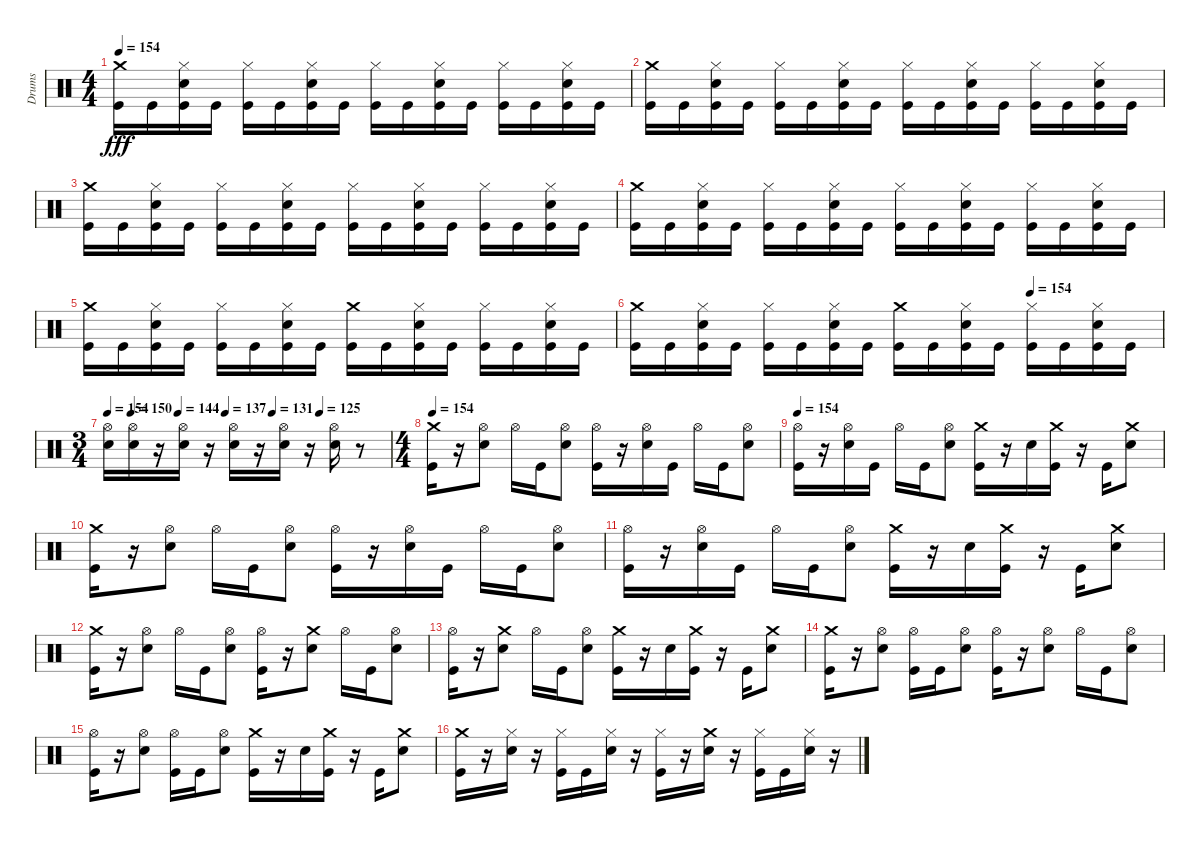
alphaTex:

\track ("Drums" "Drums") {instrument percussion}
\staff {score}
\articulation defaults
\ts (4 4)
\tempo 154
\clef neutral
\ks c
("Crash medium (hit)" "Kick (hit)").16{dy fff} "Kick (hit)".16 ("Snare (hit) 2" "Hi-Hat (closed)" "Kick (hit)").16 "Kick (hit)".16 ("Hi-Hat (closed)" "Kick (hit)").16 "Kick (hit)".16 ("Snare (hit) 2" "Hi-Hat (closed)" "Kick (hit)").16 "Kick (hit)".16 ("Hi-Hat (closed)" "Kick (hit)").16 "Kick (hit)".16 ("Snare (hit) 2" "Hi-Hat (closed)" "Kick (hit)").16 "Kick (hit)".16 ("Hi-Hat (closed)" "Kick (hit)").16 "Kick (hit)".16 ("Snare (hit) 2" "Hi-Hat (closed)" "Kick (hit)").16 "Kick (hit)".16 |
("Crash medium (hit)" "Kick (hit)").16 "Kick (hit)".16 ("Snare (hit) 2" "Hi-Hat (closed)" "Kick (hit)").16 "Kick (hit)".16 ("Hi-Hat (closed)" "Kick (hit)").16 "Kick (hit)".16 ("Snare (hit) 2" "Hi-Hat (closed)" "Kick (hit)").16 "Kick (hit)".16 ("Hi-Hat (closed)" "Kick (hit)").16 "Kick (hit)".16 ("Snare (hit) 2" "Hi-Hat (closed)" "Kick (hit)").16 "Kick (hit)".16 ("Hi-Hat (closed)" "Kick (hit)").16 "Kick (hit)".16 ("Snare (hit) 2" "Hi-Hat (closed)" "Kick (hit)").16 "Kick (hit)".16 |
("Crash medium (hit)" "Kick (hit)").16 "Kick (hit)".16 ("Snare (hit) 2" "Hi-Hat (closed)" "Kick (hit)").16 "Kick (hit)".16 ("Hi-Hat (closed)" "Kick (hit)").16 "Kick (hit)".16 ("Snare (hit) 2" "Hi-Hat (closed)" "Kick (hit)").16 "Kick (hit)".16 ("Hi-Hat (closed)" "Kick (hit)").16 "Kick (hit)".16 ("Snare (hit) 2" "Hi-Hat (closed)" "Kick (hit)").16 "Kick (hit)".16 ("Hi-Hat (closed)" "Kick (hit)").16 "Kick (hit)".16 ("Snare (hit) 2" "Hi-Hat (closed)" "Kick (hit)").16 "Kick (hit)".16 |
("Crash medium (hit)" "Kick (hit)").16 "Kick (hit)".16 ("Snare (hit) 2" "Hi-Hat (closed)" "Kick (hit)").16 "Kick (hit)".16 ("Hi-Hat (closed)" "Kick (hit)").16 "Kick (hit)".16 ("Snare (hit) 2" "Hi-Hat (closed)" "Kick (hit)").16 "Kick (hit)".16 ("Hi-Hat (closed)" "Kick (hit)").16 "Kick (hit)".16 ("Snare (hit) 2" "Hi-Hat (closed)" "Kick (hit)").16 "Kick (hit)".16 ("Hi-Hat (closed)" "Kick (hit)").16 "Kick (hit)".16 ("Snare (hit) 2" "Hi-Hat (closed)" "Kick (hit)").16 "Kick (hit)".16 |
("Crash medium (hit)" "Kick (hit)").16 "Kick (hit)".16 ("Snare (hit) 2" "Hi-Hat (closed)" "Kick (hit)").16 "Kick (hit)".16 ("Hi-Hat (closed)" "Kick (hit)").16 "Kick (hit)".16 ("Snare (hit) 2" "Hi-Hat (closed)" "Kick (hit)").16 "Kick (hit)".16 ("Crash medium (hit)" "Kick (hit)").16 "Kick (hit)".16 ("Snare (hit) 2" "Hi-Hat (closed)" "Kick (hit)").16 "Kick (hit)".16 ("Hi-Hat (closed)" "Kick (hit)").16 "Kick (hit)".16 ("Snare (hit) 2" "Hi-Hat (closed)" "Kick (hit)").16 "Kick (hit)".16 |
\tempo (154 0.75)
("Crash medium (hit)" "Kick (hit)").16 "Kick (hit)".16 ("Snare (hit) 2" "Hi-Hat (closed)" "Kick (hit)").16 "Kick (hit)".16 ("Hi-Hat (closed)" "Kick (hit)").16 "Kick (hit)".16 ("Snare (hit) 2" "Hi-Hat (closed)" "Kick (hit)").16 "Kick (hit)".16 ("Crash medium (hit)" "Kick (hit)").16 "Kick (hit)".16 ("Snare (hit) 2" "Hi-Hat (closed)" "Kick (hit)").16 "Kick (hit)".16 ("Hi-Hat (closed)" "Kick (hit)").16 "Kick (hit)".16 ("Snare (hit) 2" "Hi-Hat (closed)" "Kick (hit)").16 "Kick (hit)".16 |
\ts (3 4)
\tempo 154
\tempo (150 0.08333333333333333)
\tempo (144 0.25)
\tempo (137 0.4166666666666667)
\tempo (131 0.5833333333333334)
\tempo (125 0.75)
("Hi-Hat (open)" "Snare (hit) 2").16 ("Hi-Hat (open)" "Snare (hit) 2").16 r.16 ("Hi-Hat (open)" "Snare (hit) 2").16 r.16 ("Hi-Hat (open)" "Snare (hit) 2").16 r.16 ("Hi-Hat (open)" "Snare (hit) 2").16 r.16 ("Hi-Hat (open)" "Snare (hit) 2").16 r.8 |
\ts (4 4)
\tempo 154
("Kick (hit)" "Crash medium (hit)").16 r.16 ("Snare (hit) 2" "Hi-Hat (open)").8 "Hi-Hat (open)".16 "Kick (hit)".16 ("Snare (hit) 2" "Hi-Hat (open)").8 ("Kick (hit)" "Hi-Hat (open)").16 r.16 ("Snare (hit) 2" "Hi-Hat (open)").16 "Kick (hit)".16 "Hi-Hat (open)".16 "Kick (hit)".16 ("Snare (hit) 2" "Hi-Hat (open)").8 |
\tempo 154
("Hi-Hat (open)" "Kick (hit)").16 r.16 ("Snare (hit) 2" "Hi-Hat (open)").16 "Kick (hit)".16 "Hi-Hat (open)".16 "Kick (hit)".16 ("Snare (hit) 2" "Hi-Hat (open)").8 ("Crash medium (hit)" "Kick (hit)").16 r.16 "Snare (hit) 2".16 ("Crash medium (hit)" "Kick (hit)").16 r.16 "Kick (hit)".16 ("Crash medium (hit)" "Snare (hit) 2").8 |
("Kick (hit)" "Crash medium (hit)").16 r.16 ("Snare (hit) 2" "Hi-Hat (open)").8 "Hi-Hat (open)".16 "Kick (hit)".16 ("Snare (hit) 2" "Hi-Hat (open)").8 ("Kick (hit)" "Hi-Hat (open)").16 r.16 ("Snare (hit) 2" "Hi-Hat (open)").16 "Kick (hit)".16 "Hi-Hat (open)".16 "Kick (hit)".16 ("Snare (hit) 2" "Hi-Hat (open)").8 |
("Hi-Hat (open)" "Kick (hit)").16 r.16 ("Snare (hit) 2" "Hi-Hat (open)").16 "Kick (hit)".16 "Hi-Hat (open)".16 "Kick (hit)".16 ("Snare (hit) 2" "Hi-Hat (open)").8 ("Crash medium (hit)" "Kick (hit)").16 r.16 "Snare (hit) 2".16 ("Crash medium (hit)" "Kick (hit)").16 r.16 "Kick (hit)".16 ("Crash medium (hit)" "Snare (hit) 2").8 |
("Kick (hit)" "Crash medium (hit)").16 r.16 ("Snare (hit) 2" "Hi-Hat (open)").8 "Hi-Hat (open)".16 "Kick (hit)".16 ("Snare (hit) 2" "Hi-Hat (open)").8 ("Kick (hit)" "Hi-Hat (open)").16 r.16 ("Crash medium (hit)" "Snare (hit) 2").8 "Hi-Hat (open)".16 "Kick (hit)".16 ("Snare (hit) 2" "Hi-Hat (open)").8 |
("Hi-Hat (open)" "Kick (hit)").16 r.16 ("Crash medium (hit)" "Snare (hit) 2").8 "Hi-Hat (open)".16 "Kick (hit)".16 ("Snare (hit) 2" "Hi-Hat (open)").8 ("Crash medium (hit)" "Kick (hit)").16 r.16 "Snare (hit) 2".16 ("Crash medium (hit)" "Kick (hit)").16 r.16 "Kick (hit)".16 ("Crash medium (hit)" "Snare (hit) 2").8 |
("Kick (hit)" "Crash medium (hit)").16 r.16 ("Snare (hit) 2" "Hi-Hat (open)").8 ("Kick (hit)" "Hi-Hat (open)").16 "Kick (hit)".16 ("Snare (hit) 2" "Hi-Hat (open)").8 ("Kick (hit)" "Hi-Hat (open)").16 r.16 ("Snare (hit) 2" "Hi-Hat (open)").8 "Hi-Hat (open)".16 "Kick (hit)".16 ("Snare (hit) 2" "Hi-Hat (open)").8 |
("Hi-Hat (open)" "Kick (hit)").16 r.16 ("Snare (hit) 2" "Hi-Hat (open)").8 ("Kick (hit)" "Hi-Hat (open)").16 "Kick (hit)".16 ("Snare (hit) 2" "Hi-Hat (open)").8 ("Crash medium (hit)" "Kick (hit)").16 r.16 "Snare (hit) 2".16 ("Crash medium (hit)" "Kick (hit)").16 r.16 "Kick (hit)".16 ("Crash medium (hit)" "Snare (hit) 2").8 |
("Crash medium (hit)" "Kick (hit)").16 r.16 ("Snare (hit) 2" "Hi-Hat (closed)").16 r.16 ("Kick (hit)" "Hi-Hat (closed)").16 "Kick (hit)".16 ("Snare (hit) 2" "Hi-Hat (closed)").16 r.16 ("Hi-Hat (closed)" "Kick (hit)").16 r.16 ("Crash medium (hit)" "Snare (hit) 2").16 r.16 ("Hi-Hat (closed)" "Kick (hit)").16 "Kick (hit)".16 ("Hi-Hat (closed)" "Snare (hit) 2").16 r.16
